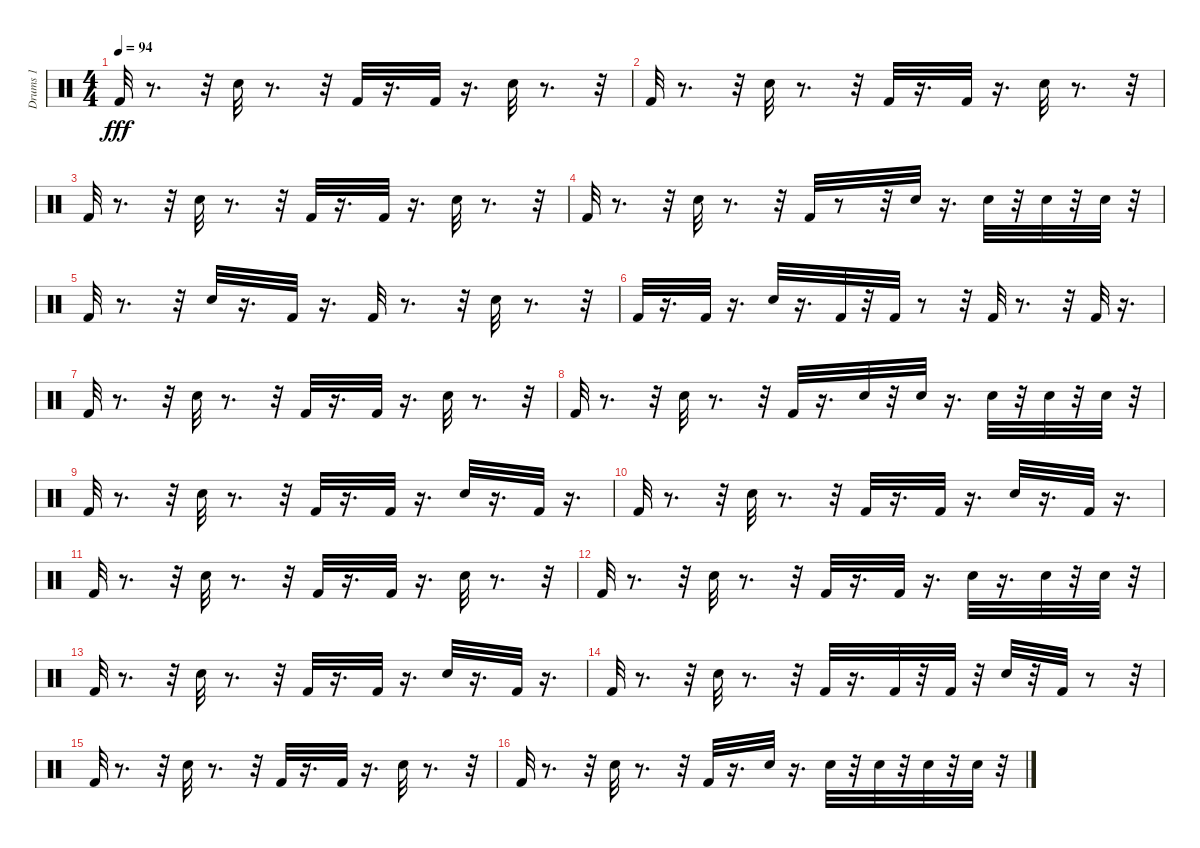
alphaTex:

\track ("Drums 1" "Drums 1") {instrument percussion}
\staff {score}
\articulation defaults
\ts (4 4)
\tempo 94
\clef neutral
\ks c "Kick (hit) 2".32{dy fff}
r.8{d} r.32 "Electric Snare (hit)".32 r.8{d} r.32 "Kick (hit) 2".32 r.16{d} "Kick (hit) 2".32 r.16{d} "Electric Snare (hit)".32 r.8{d} r.32 |
"Kick (hit) 2".32 r.8{d} r.32 "Electric Snare (hit)".32 r.8{d} r.32 "Kick (hit) 2".32 r.16{d} "Kick (hit) 2".32 r.16{d} "Electric Snare (hit)".32 r.8{d} r.32 |
"Kick (hit) 2".32 r.8{d} r.32 "Electric Snare (hit)".32 r.8{d} r.32 "Kick (hit) 2".32 r.16{d} "Kick (hit) 2".32 r.16{d} "Electric Snare (hit)".32 r.8{d} r.32 |
"Kick (hit) 2".32 r.8{d} r.32 "Electric Snare (hit)".32 r.8{d} r.32 "Kick (hit) 2".32 r.8 r.32 "Electric Snare (hit)".32 r.16{d} "Electric Snare (hit)".32 r.32 "Electric Snare (hit)".32 r.32 "Electric Snare (hit)".32 r.32 |
"Kick (hit) 2".32 r.8{d} r.32 "Electric Snare (hit)".32 r.16{d} "Kick (hit) 2".32 r.16{d} "Kick (hit) 2".32 r.8{d} r.32 "Electric Snare (hit)".32 r.8{d} r.32 |
"Kick (hit) 2".32 r.16{d} "Kick (hit) 2".32 r.16{d} "Electric Snare (hit)".32 r.16{d} "Kick (hit) 2".32 r.32 "Kick (hit) 2".32 r.8 r.32 "Kick (hit) 2".32 r.8{d} r.32 "Kick (hit) 2".32 r.16{d} |
"Kick (hit) 2".32 r.8{d} r.32 "Electric Snare (hit)".32 r.8{d} r.32 "Kick (hit) 2".32 r.16{d} "Kick (hit) 2".32 r.16{d} "Electric Snare (hit)".32 r.8{d} r.32 |
"Kick (hit) 2".32 r.8{d} r.32 "Electric Snare (hit)".32 r.8{d} r.32 "Kick (hit) 2".32 r.16{d} "Electric Snare (hit)".32 r.32 "Electric Snare (hit)".32 r.16{d} "Electric Snare (hit)".32 r.32 "Electric Snare (hit)".32 r.32 "Electric Snare (hit)".32 r.32 |
"Kick (hit) 2".32 r.8{d} r.32 "Electric Snare (hit)".32 r.8{d} r.32 "Kick (hit) 2".32 r.16{d} "Kick (hit) 2".32 r.16{d} "Electric Snare (hit)".32 r.16{d} "Kick (hit) 2".32 r.16{d} |
"Kick (hit) 2".32 r.8{d} r.32 "Electric Snare (hit)".32 r.8{d} r.32 "Kick (hit) 2".32 r.16{d} "Kick (hit) 2".32 r.16{d} "Electric Snare (hit)".32 r.16{d} "Kick (hit) 2".32 r.16{d} |
"Kick (hit) 2".32 r.8{d} r.32 "Electric Snare (hit)".32 r.8{d} r.32 "Kick (hit) 2".32 r.16{d} "Kick (hit) 2".32 r.16{d} "Electric Snare (hit)".32 r.8{d} r.32 |
"Kick (hit) 2".32 r.8{d} r.32 "Electric Snare (hit)".32 r.8{d} r.32 "Kick (hit) 2".32 r.16{d} "Kick (hit) 2".32 r.16{d} "Electric Snare (hit)".32 r.16{d} "Electric Snare (hit)".32 r.32 "Electric Snare (hit)".32 r.32 |
"Kick (hit) 2".32 r.8{d} r.32 "Electric Snare (hit)".32 r.8{d} r.32 "Kick (hit) 2".32 r.16{d} "Kick (hit) 2".32 r.16{d} "Electric Snare (hit)".32 r.16{d} "Kick (hit) 2".32 r.16{d} |
"Kick (hit) 2".32 r.8{d} r.32 "Electric Snare (hit)".32 r.8{d} r.32 "Kick (hit) 2".32 r.16{d} "Kick (hit) 2".32 r.32 "Kick (hit) 2".32 r.32 "Electric Snare (hit)".32 r.32 "Kick (hit) 2".32 r.8 r.32 |
"Kick (hit) 2".32 r.8{d} r.32 "Electric Snare (hit)".32 r.8{d} r.32 "Kick (hit) 2".32 r.16{d} "Kick (hit) 2".32 r.16{d} "Electric Snare (hit)".32 r.8{d} r.32 |
"Kick (hit) 2".32 r.8{d} r.32 "Electric Snare (hit)".32 r.8{d} r.32 "Kick (hit) 2".32 r.16{d} "Electric Snare (hit)".32 r.16{d} "Electric Snare (hit)".32 r.32 "Electric Snare (hit)".32 r.32 "Electric Snare (hit)".32 r.32 "Electric Snare (hit)".32 r.32
